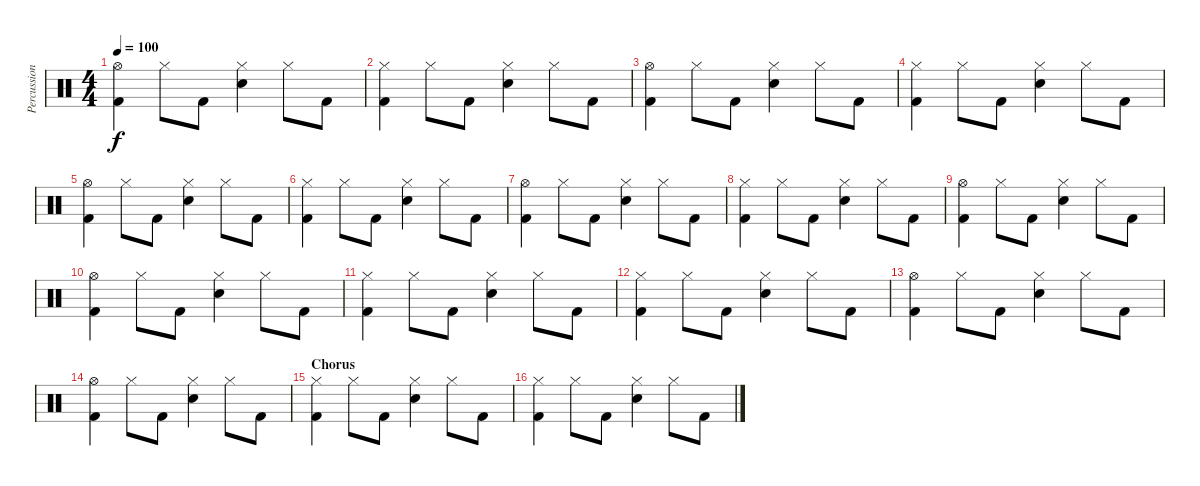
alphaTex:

\track ("Percussion" "Percussion") {instrument percussion}
\staff {score}
\articulation defaults
\ts (4 4)
\tempo 100
\clef neutral
\ks c
("Hi-Hat (open)" "Kick (hit) 2").4{dy f} "Hi-Hat (closed)".8 "Kick (hit) 2".8 ("Hi-Hat (closed)" "Snare (hit) 2").4 "Hi-Hat (closed)".8 "Kick (hit) 2".8 |
("Hi-Hat (closed)" "Kick (hit) 2").4 "Hi-Hat (closed)".8 "Kick (hit) 2".8 ("Hi-Hat (closed)" "Snare (hit) 2").4 "Hi-Hat (closed)".8 "Kick (hit) 2".8 |
("Hi-Hat (open)" "Kick (hit) 2").4 "Hi-Hat (closed)".8 "Kick (hit) 2".8 ("Hi-Hat (closed)" "Snare (hit) 2").4 "Hi-Hat (closed)".8 "Kick (hit) 2".8 |
("Hi-Hat (closed)" "Kick (hit) 2").4 "Hi-Hat (closed)".8 "Kick (hit) 2".8 ("Hi-Hat (closed)" "Snare (hit) 2").4 "Hi-Hat (closed)".8 "Kick (hit) 2".8 |
("Hi-Hat (open)" "Kick (hit) 2").4 "Hi-Hat (closed)".8 "Kick (hit) 2".8 ("Hi-Hat (closed)" "Snare (hit) 2").4 "Hi-Hat (closed)".8 "Kick (hit) 2".8 |
("Hi-Hat (closed)" "Kick (hit) 2").4 "Hi-Hat (closed)".8 "Kick (hit) 2".8 ("Hi-Hat (closed)" "Snare (hit) 2").4 "Hi-Hat (closed)".8 "Kick (hit) 2".8 |
("Hi-Hat (open)" "Kick (hit) 2").4 "Hi-Hat (closed)".8 "Kick (hit) 2".8 ("Hi-Hat (closed)" "Snare (hit) 2").4 "Hi-Hat (closed)".8 "Kick (hit) 2".8 |
("Hi-Hat (closed)" "Kick (hit) 2").4 "Hi-Hat (closed)".8 "Kick (hit) 2".8 ("Hi-Hat (closed)" "Snare (hit) 2").4 "Hi-Hat (closed)".8 "Kick (hit) 2".8 |
("Hi-Hat (open)" "Kick (hit) 2").4 "Hi-Hat (closed)".8 "Kick (hit) 2".8 ("Hi-Hat (closed)" "Snare (hit) 2").4 "Hi-Hat (closed)".8 "Kick (hit) 2".8 |
("Hi-Hat (open)" "Kick (hit) 2").4 "Hi-Hat (closed)".8 "Kick (hit) 2".8 ("Hi-Hat (closed)" "Snare (hit) 2").4 "Hi-Hat (closed)".8 "Kick (hit) 2".8 |
("Hi-Hat (closed)" "Kick (hit) 2").4 "Hi-Hat (closed)".8 "Kick (hit) 2".8 ("Hi-Hat (closed)" "Snare (hit) 2").4 "Hi-Hat (closed)".8 "Kick (hit) 2".8 |
("Hi-Hat (closed)" "Kick (hit) 2").4 "Hi-Hat (closed)".8 "Kick (hit) 2".8 ("Hi-Hat (closed)" "Snare (hit) 2").4 "Hi-Hat (closed)".8 "Kick (hit) 2".8 |
("Hi-Hat (open)" "Kick (hit) 2").4 "Hi-Hat (closed)".8 "Kick (hit) 2".8 ("Hi-Hat (closed)" "Snare (hit) 2").4 "Hi-Hat (closed)".8 "Kick (hit) 2".8 |
("Hi-Hat (open)" "Kick (hit) 2").4 "Hi-Hat (closed)".8 "Kick (hit) 2".8 ("Hi-Hat (closed)" "Snare (hit) 2").4 "Hi-Hat (closed)".8 "Kick (hit) 2".8 |
\section ("" "Chorus")
("Hi-Hat (closed)" "Kick (hit) 2").4 "Hi-Hat (closed)".8 "Kick (hit) 2".8 ("Hi-Hat (closed)" "Snare (hit) 2").4 "Hi-Hat (closed)".8 "Kick (hit) 2".8 |
\section ("" "")
("Hi-Hat (closed)" "Kick (hit) 2").4 "Hi-Hat (closed)".8 "Kick (hit) 2".8 ("Hi-Hat (closed)" "Snare (hit) 2").4 "Hi-Hat (closed)".8 "Kick (hit) 2".8
